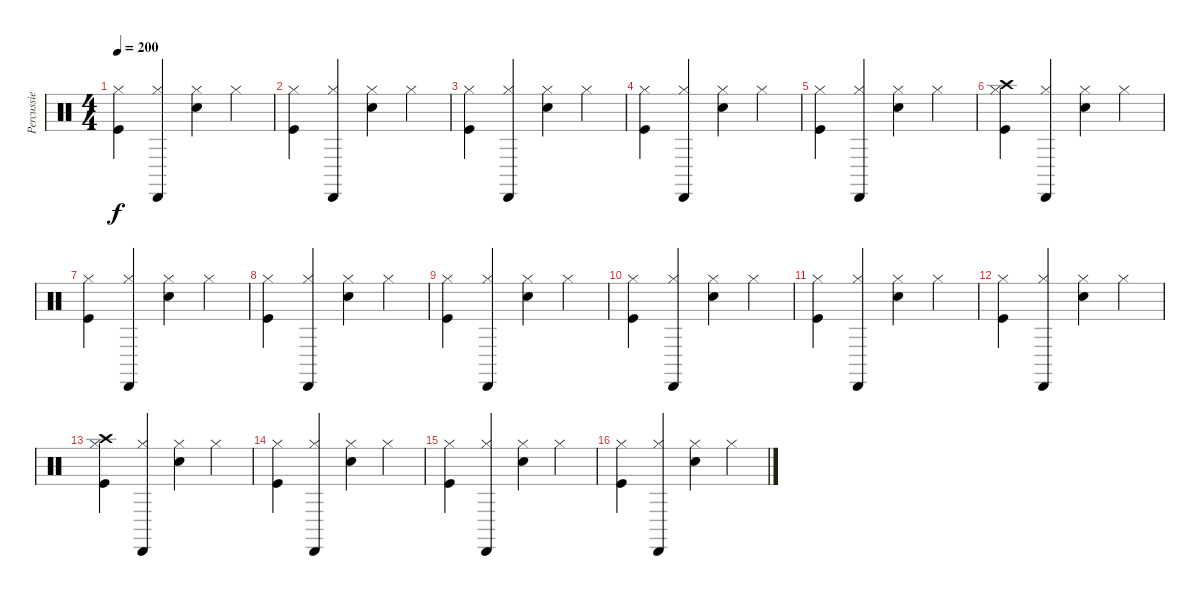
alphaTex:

\track ("Percussie" "Percussie") {instrument percussion}
\staff {score}
\articulation defaults
\ts (4 4)
\tempo 200
\clef neutral
\ks c
("Hi-Hat (closed)" "Kick (hit)").4{dy f} ("Cabasa (hit)" "Hi-Hat (closed)").4 ("Electric Snare (hit)" "Hi-Hat (closed)").4 "Hi-Hat (closed)".4 |
("Hi-Hat (closed)" "Kick (hit)").4 ("Cabasa (hit)" "Hi-Hat (closed)").4 ("Electric Snare (hit)" "Hi-Hat (closed)").4 "Hi-Hat (closed)".4 |
("Hi-Hat (closed)" "Kick (hit)").4 ("Cabasa (hit)" "Hi-Hat (closed)").4 ("Electric Snare (hit)" "Hi-Hat (closed)").4 "Hi-Hat (closed)".4 |
("Hi-Hat (closed)" "Kick (hit)").4 ("Cabasa (hit)" "Hi-Hat (closed)").4 ("Electric Snare (hit)" "Hi-Hat (closed)").4 "Hi-Hat (closed)".4 |
("Hi-Hat (closed)" "Kick (hit)").4 ("Cabasa (hit)" "Hi-Hat (closed)").4 ("Electric Snare (hit)" "Hi-Hat (closed)").4 "Hi-Hat (closed)".4 |
("Crash high (hit)" "Hi-Hat (closed)" "Kick (hit)").4 ("Cabasa (hit)" "Hi-Hat (closed)").4 ("Electric Snare (hit)" "Hi-Hat (closed)").4 "Hi-Hat (closed)".4 |
("Hi-Hat (closed)" "Kick (hit)").4 ("Cabasa (hit)" "Hi-Hat (closed)").4 ("Electric Snare (hit)" "Hi-Hat (closed)").4 "Hi-Hat (closed)".4 |
("Hi-Hat (closed)" "Kick (hit)").4 ("Cabasa (hit)" "Hi-Hat (closed)").4 ("Electric Snare (hit)" "Hi-Hat (closed)").4 "Hi-Hat (closed)".4 |
("Hi-Hat (closed)" "Kick (hit)").4 ("Cabasa (hit)" "Hi-Hat (closed)").4 ("Electric Snare (hit)" "Hi-Hat (closed)").4 "Hi-Hat (closed)".4 |
("Hi-Hat (closed)" "Kick (hit)").4 ("Cabasa (hit)" "Hi-Hat (closed)").4 ("Electric Snare (hit)" "Hi-Hat (closed)").4 "Hi-Hat (closed)".4 |
("Hi-Hat (closed)" "Kick (hit)").4 ("Cabasa (hit)" "Hi-Hat (closed)").4 ("Electric Snare (hit)" "Hi-Hat (closed)").4 "Hi-Hat (closed)".4 |
("Hi-Hat (closed)" "Kick (hit)").4 ("Cabasa (hit)" "Hi-Hat (closed)").4 ("Electric Snare (hit)" "Hi-Hat (closed)").4 "Hi-Hat (closed)".4 |
("Crash high (hit)" "Hi-Hat (closed)" "Kick (hit)").4 ("Cabasa (hit)" "Hi-Hat (closed)").4 ("Electric Snare (hit)" "Hi-Hat (closed)").4 "Hi-Hat (closed)".4 |
("Hi-Hat (closed)" "Kick (hit)").4 ("Cabasa (hit)" "Hi-Hat (closed)").4 ("Electric Snare (hit)" "Hi-Hat (closed)").4 "Hi-Hat (closed)".4 |
("Hi-Hat (closed)" "Kick (hit)").4 ("Cabasa (hit)" "Hi-Hat (closed)").4 ("Electric Snare (hit)" "Hi-Hat (closed)").4 "Hi-Hat (closed)".4 |
("Hi-Hat (closed)" "Kick (hit)").4 ("Cabasa (hit)" "Hi-Hat (closed)").4 ("Electric Snare (hit)" "Hi-Hat (closed)").4 "Hi-Hat (closed)".4
